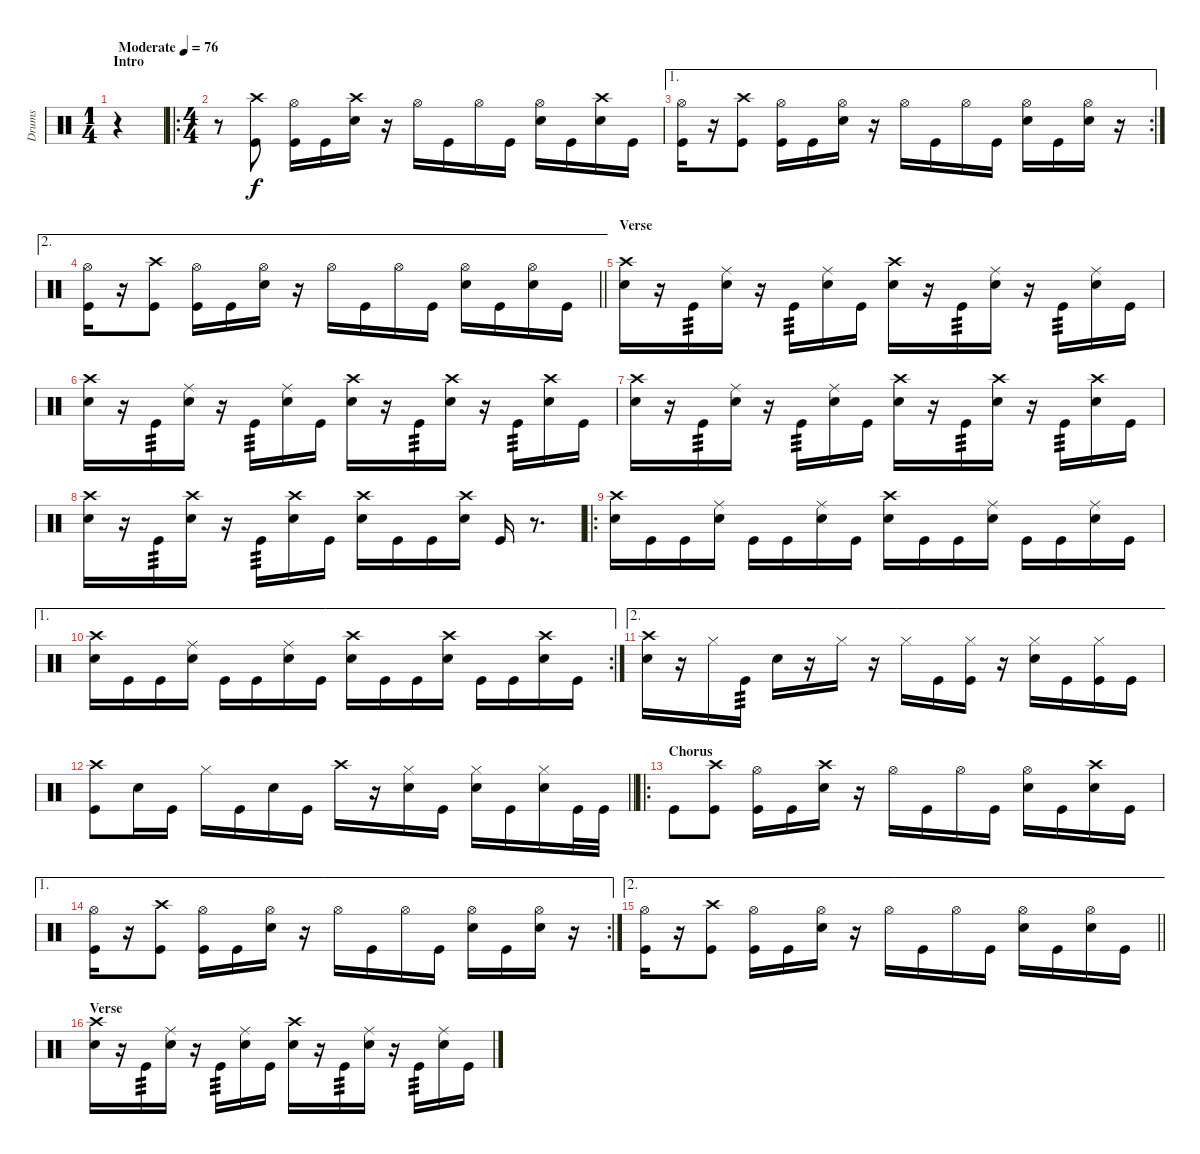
\track ("Drums" "Drums") {instrument percussion}
\staff {score}
\articulation defaults
\ts (1 4)
\section ("" "Intro")
\tempo (76 "Moderate")
\clef neutral
\ks c
r.4{dy f} |
\ro
\ts (4 4)
r.8 ("Crash high (hit)" "Kick (hit)").8 ("Hi-Hat (open)" "Kick (hit)").16 "Kick (hit)".16 ("Crash high (hit)" "Electric Snare (hit)").16 r.16 "Hi-Hat (open)".16 "Kick (hit)".16 "Hi-Hat (open)".16 "Kick (hit)".16 ("Hi-Hat (open)" "Electric Snare (hit)").16 "Kick (hit)".16 ("Crash high (hit)" "Electric Snare (hit)").16 "Kick (hit)".16 |
\ae 1
\rc 2
("Hi-Hat (open)" "Kick (hit)").16 r.16 ("Crash high (hit)" "Kick (hit)").8 ("Hi-Hat (open)" "Kick (hit)").16 "Kick (hit)".16 ("Hi-Hat (open)" "Electric Snare (hit)").16 r.16 "Hi-Hat (open)".16 "Kick (hit)".16 "Hi-Hat (open)".16 "Kick (hit)".16 ("Hi-Hat (open)" "Electric Snare (hit)").16 "Kick (hit)".16 ("Hi-Hat (open)" "Electric Snare (hit)").16 r.16 |
\ae 2
\barLineRight lightlight
("Hi-Hat (open)" "Kick (hit)").16 r.16 ("Crash high (hit)" "Kick (hit)").8 ("Hi-Hat (open)" "Kick (hit)").16 "Kick (hit)".16 ("Hi-Hat (open)" "Electric Snare (hit)").16 r.16 "Hi-Hat (open)".16 "Kick (hit)".16 "Hi-Hat (open)".16 "Kick (hit)".16 ("Hi-Hat (open)" "Electric Snare (hit)").16 "Kick (hit)".16 ("Hi-Hat (open)" "Electric Snare (hit)").16 "Kick (hit)".16 |
\section ("" "Verse")
("Crash high (hit)" "Electric Snare (hit)").16 r.16 "Kick (hit)".16{tp 3} ("Ride (middle)" "Electric Snare (hit)").16 r.16 "Kick (hit)".16{tp 3} ("Ride (middle)" "Electric Snare (hit)").16 "Kick (hit)".16 ("Crash high (hit)" "Electric Snare (hit)").16 r.16 "Kick (hit)".16{tp 3} ("Ride (middle)" "Electric Snare (hit)").16 r.16 "Kick (hit)".16{tp 3} ("Ride (middle)" "Electric Snare (hit)").16 "Kick (hit)".16 |
("Crash high (hit)" "Electric Snare (hit)").16 r.16 "Kick (hit)".16{tp 3} ("Ride (middle)" "Electric Snare (hit)").16 r.16 "Kick (hit)".16{tp 3} ("Ride (middle)" "Electric Snare (hit)").16 "Kick (hit)".16 ("Crash high (hit)" "Electric Snare (hit)").16 r.16 "Kick (hit)".16{tp 3} ("Crash high (hit)" "Electric Snare (hit)").16 r.16 "Kick (hit)".16{tp 3} ("Crash high (hit)" "Electric Snare (hit)").16 "Kick (hit)".16 |
("Crash high (hit)" "Electric Snare (hit)").16 r.16 "Kick (hit)".16{tp 3} ("Ride (middle)" "Electric Snare (hit)").16 r.16 "Kick (hit)".16{tp 3} ("Ride (middle)" "Electric Snare (hit)").16 "Kick (hit)".16 ("Crash high (hit)" "Electric Snare (hit)").16 r.16 "Kick (hit)".16{tp 3} ("Crash high (hit)" "Electric Snare (hit)").16 r.16 "Kick (hit)".16{tp 3} ("Crash high (hit)" "Electric Snare (hit)").16 "Kick (hit)".16 |
("Crash high (hit)" "Electric Snare (hit)").16 r.16 "Kick (hit)".16{tp 3} ("Crash high (hit)" "Electric Snare (hit)").16 r.16 "Kick (hit)".16{tp 3} ("Crash high (hit)" "Electric Snare (hit)").16 "Kick (hit)".16 ("Crash high (hit)" "Electric Snare (hit)").16 "Kick (hit)".16 "Kick (hit)".16 ("Crash high (hit)" "Electric Snare (hit)").16 "Kick (hit)".16 r.8{d} |
\ro
("Crash high (hit)" "Snare (hit) 2").16 "Kick (hit)".16 "Kick (hit)".16 ("Ride (middle)" "Snare (hit) 2").16 "Kick (hit)".16 "Kick (hit)".16 ("Ride (middle)" "Snare (hit) 2").16 "Kick (hit)".16 ("Crash high (hit)" "Snare (hit) 2").16 "Kick (hit)".16 "Kick (hit)".16 ("Ride (middle)" "Snare (hit) 2").16 "Kick (hit)".16 "Kick (hit)".16 ("Ride (middle)" "Snare (hit) 2").16 "Kick (hit)".16 |
\ae 1
\rc 2
("Crash high (hit)" "Snare (hit) 2").16 "Kick (hit)".16 "Kick (hit)".16 ("Ride (middle)" "Snare (hit) 2").16 "Kick (hit)".16 "Kick (hit)".16 ("Ride (middle)" "Snare (hit) 2").16 "Kick (hit)".16 ("Crash high (hit)" "Snare (hit) 2").16 "Kick (hit)".16 "Kick (hit)".16 ("Crash high (hit)" "Snare (hit) 2").16 "Kick (hit)".16 "Kick (hit)".16 ("Crash high (hit)" "Snare (hit) 2").16 "Kick (hit)".16 |
\ae 2
("Crash high (hit)" "Electric Snare (hit)").16 r.16 "Hi-Hat (closed)".16 "Kick (hit)".16{tp 3} "Electric Snare (hit)".16 r.16 "Hi-Hat (closed)".16 r.16 "Hi-Hat (closed)".16 "Kick (hit)".16 ("Hi-Hat (closed)" "Kick (hit)").16 r.16 ("Hi-Hat (closed)" "Electric Snare (hit)").16 "Kick (hit)".16 ("Hi-Hat (closed)" "Kick (hit)").16 "Kick (hit)".16 |
\barLineRight lightlight
("Crash high (hit)" "Kick (hit)").8 "Electric Snare (hit)".16 "Kick (hit)".16 "Hi-Hat (closed)".16 "Kick (hit)".16 "Electric Snare (hit)".16 "Kick (hit)".16 "Crash high (hit)".16 r.16 ("Hi-Hat (closed)" "Electric Snare (hit)").16 "Kick (hit)".16 ("Hi-Hat (closed)" "Electric Snare (hit)").16 "Kick (hit)".16 ("Hi-Hat (closed)" "Electric Snare (hit)").16 "Kick (hit)".32 "Kick (hit)".32 |
\ro
\section ("" "Chorus")
"Kick (hit)".8 ("Crash high (hit)" "Kick (hit)").8 ("Hi-Hat (open)" "Kick (hit)").16 "Kick (hit)".16 ("Crash high (hit)" "Electric Snare (hit)").16 r.16 "Hi-Hat (open)".16 "Kick (hit)".16 "Hi-Hat (open)".16 "Kick (hit)".16 ("Hi-Hat (open)" "Electric Snare (hit)").16 "Kick (hit)".16 ("Crash high (hit)" "Electric Snare (hit)").16 "Kick (hit)".16 |
\ae 1
\rc 2
("Hi-Hat (open)" "Kick (hit)").16 r.16 ("Crash high (hit)" "Kick (hit)").8 ("Hi-Hat (open)" "Kick (hit)").16 "Kick (hit)".16 ("Hi-Hat (open)" "Electric Snare (hit)").16 r.16 "Hi-Hat (open)".16 "Kick (hit)".16 "Hi-Hat (open)".16 "Kick (hit)".16 ("Hi-Hat (open)" "Electric Snare (hit)").16 "Kick (hit)".16 ("Hi-Hat (open)" "Electric Snare (hit)").16 r.16 |
\ae 2
\barLineRight lightlight
("Hi-Hat (open)" "Kick (hit)").16 r.16 ("Crash high (hit)" "Kick (hit)").8 ("Hi-Hat (open)" "Kick (hit)").16 "Kick (hit)".16 ("Hi-Hat (open)" "Electric Snare (hit)").16 r.16 "Hi-Hat (open)".16 "Kick (hit)".16 "Hi-Hat (open)".16 "Kick (hit)".16 ("Hi-Hat (open)" "Electric Snare (hit)").16 "Kick (hit)".16 ("Hi-Hat (open)" "Electric Snare (hit)").16 "Kick (hit)".16 |
\section ("" "Verse")
("Crash high (hit)" "Electric Snare (hit)").16 r.16 "Kick (hit)".16{tp 3} ("Ride (middle)" "Electric Snare (hit)").16 r.16 "Kick (hit)".16{tp 3} ("Ride (middle)" "Electric Snare (hit)").16 "Kick (hit)".16 ("Crash high (hit)" "Electric Snare (hit)").16 r.16 "Kick (hit)".16{tp 3} ("Ride (middle)" "Electric Snare (hit)").16 r.16 "Kick (hit)".16{tp 3} ("Ride (middle)" "Electric Snare (hit)").16 "Kick (hit)".16
